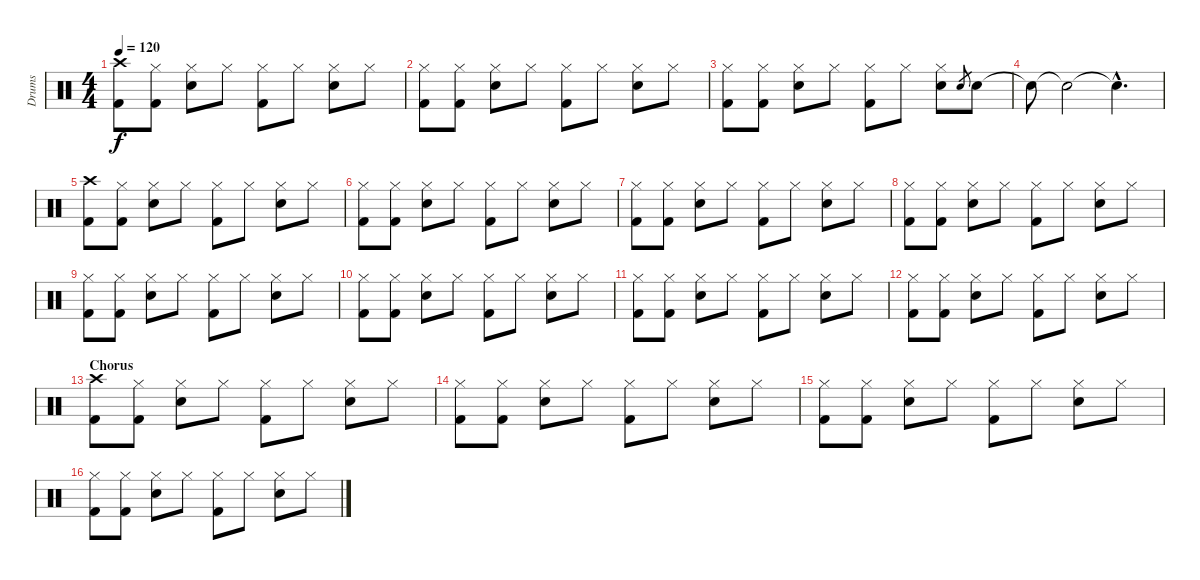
\track ("Drums" "Drums") {instrument percussion}
\staff {score}
\articulation defaults
\ts (4 4)
\tempo 120
\clef neutral
\ks c
("Crash high (hit)" "Kick (hit) 2").8{dy f} ("Hi-Hat (closed)" "Kick (hit) 2").8 ("Hi-Hat (closed)" "Electric Snare (hit)").8 "Hi-Hat (closed)".8 ("Hi-Hat (closed)" "Kick (hit) 2").8 "Hi-Hat (closed)".8 ("Hi-Hat (closed)" "Electric Snare (hit)").8 "Hi-Hat (closed)".8 |
("Hi-Hat (closed)" "Kick (hit) 2").8 ("Hi-Hat (closed)" "Kick (hit) 2").8 ("Hi-Hat (closed)" "Electric Snare (hit)").8 "Hi-Hat (closed)".8 ("Hi-Hat (closed)" "Kick (hit) 2").8 "Hi-Hat (closed)".8 ("Hi-Hat (closed)" "Electric Snare (hit)").8 "Hi-Hat (closed)".8 |
("Hi-Hat (closed)" "Kick (hit) 2").8 ("Hi-Hat (closed)" "Kick (hit) 2").8 ("Hi-Hat (closed)" "Electric Snare (hit)").8 "Hi-Hat (closed)".8 ("Hi-Hat (closed)" "Kick (hit) 2").8 "Hi-Hat (closed)".8 ("Hi-Hat (closed)" "Electric Snare (hit)").8 "Electric Snare (hit)".8{gr} "Electric Snare (hit)".8 |
"Snare (hit)"{t}.8 "Snare (hit)"{t}.2 "Snare (hit)"{hac t}.4{d} |
("Crash high (hit)" "Kick (hit) 2").8 ("Hi-Hat (closed)" "Kick (hit) 2").8 ("Hi-Hat (closed)" "Electric Snare (hit)").8 "Hi-Hat (closed)".8 ("Hi-Hat (closed)" "Kick (hit) 2").8 "Hi-Hat (closed)".8 ("Hi-Hat (closed)" "Electric Snare (hit)").8 "Hi-Hat (closed)".8 |
("Hi-Hat (closed)" "Kick (hit) 2").8 ("Hi-Hat (closed)" "Kick (hit) 2").8 ("Hi-Hat (closed)" "Electric Snare (hit)").8 "Hi-Hat (closed)".8 ("Hi-Hat (closed)" "Kick (hit) 2").8 "Hi-Hat (closed)".8 ("Hi-Hat (closed)" "Electric Snare (hit)").8 "Hi-Hat (closed)".8 |
("Hi-Hat (closed)" "Kick (hit) 2").8 ("Hi-Hat (closed)" "Kick (hit) 2").8 ("Hi-Hat (closed)" "Electric Snare (hit)").8 "Hi-Hat (closed)".8 ("Hi-Hat (closed)" "Kick (hit) 2").8 "Hi-Hat (closed)".8 ("Hi-Hat (closed)" "Electric Snare (hit)").8 "Hi-Hat (closed)".8 |
("Hi-Hat (closed)" "Kick (hit) 2").8 ("Hi-Hat (closed)" "Kick (hit) 2").8 ("Hi-Hat (closed)" "Electric Snare (hit)").8 "Hi-Hat (closed)".8 ("Hi-Hat (closed)" "Kick (hit) 2").8 "Hi-Hat (closed)".8 ("Hi-Hat (closed)" "Electric Snare (hit)").8 "Hi-Hat (closed)".8 |
("Hi-Hat (closed)" "Kick (hit) 2").8 ("Hi-Hat (closed)" "Kick (hit) 2").8 ("Hi-Hat (closed)" "Electric Snare (hit)").8 "Hi-Hat (closed)".8 ("Hi-Hat (closed)" "Kick (hit) 2").8 "Hi-Hat (closed)".8 ("Hi-Hat (closed)" "Electric Snare (hit)").8 "Hi-Hat (closed)".8 |
("Hi-Hat (closed)" "Kick (hit) 2").8 ("Hi-Hat (closed)" "Kick (hit) 2").8 ("Hi-Hat (closed)" "Electric Snare (hit)").8 "Hi-Hat (closed)".8 ("Hi-Hat (closed)" "Kick (hit) 2").8 "Hi-Hat (closed)".8 ("Hi-Hat (closed)" "Electric Snare (hit)").8 "Hi-Hat (closed)".8 |
("Hi-Hat (closed)" "Kick (hit) 2").8 ("Hi-Hat (closed)" "Kick (hit) 2").8 ("Hi-Hat (closed)" "Electric Snare (hit)").8 "Hi-Hat (closed)".8 ("Hi-Hat (closed)" "Kick (hit) 2").8 "Hi-Hat (closed)".8 ("Hi-Hat (closed)" "Electric Snare (hit)").8 "Hi-Hat (closed)".8 |
("Hi-Hat (closed)" "Kick (hit) 2").8 ("Hi-Hat (closed)" "Kick (hit) 2").8 ("Hi-Hat (closed)" "Electric Snare (hit)").8 "Hi-Hat (closed)".8 ("Hi-Hat (closed)" "Kick (hit) 2").8 "Hi-Hat (closed)".8 ("Hi-Hat (closed)" "Electric Snare (hit)").8 "Hi-Hat (closed)".8 |
\section ("" "Chorus")
("Crash high (hit)" "Kick (hit) 2").8 ("Hi-Hat (closed)" "Kick (hit) 2").8 ("Hi-Hat (closed)" "Electric Snare (hit)").8 "Hi-Hat (closed)".8 ("Hi-Hat (closed)" "Kick (hit) 2").8 "Hi-Hat (closed)".8 ("Hi-Hat (closed)" "Electric Snare (hit)").8 "Hi-Hat (closed)".8 |
("Hi-Hat (closed)" "Kick (hit) 2").8 ("Hi-Hat (closed)" "Kick (hit) 2").8 ("Hi-Hat (closed)" "Electric Snare (hit)").8 "Hi-Hat (closed)".8 ("Hi-Hat (closed)" "Kick (hit) 2").8 "Hi-Hat (closed)".8 ("Hi-Hat (closed)" "Electric Snare (hit)").8 "Hi-Hat (closed)".8 |
("Hi-Hat (closed)" "Kick (hit) 2").8 ("Hi-Hat (closed)" "Kick (hit) 2").8 ("Hi-Hat (closed)" "Electric Snare (hit)").8 "Hi-Hat (closed)".8 ("Hi-Hat (closed)" "Kick (hit) 2").8 "Hi-Hat (closed)".8 ("Hi-Hat (closed)" "Electric Snare (hit)").8 "Hi-Hat (closed)".8 |
("Hi-Hat (closed)" "Kick (hit) 2").8 ("Hi-Hat (closed)" "Kick (hit) 2").8 ("Hi-Hat (closed)" "Electric Snare (hit)").8 "Hi-Hat (closed)".8 ("Hi-Hat (closed)" "Kick (hit) 2").8 "Hi-Hat (closed)".8 ("Hi-Hat (closed)" "Electric Snare (hit)").8 "Hi-Hat (closed)".8
